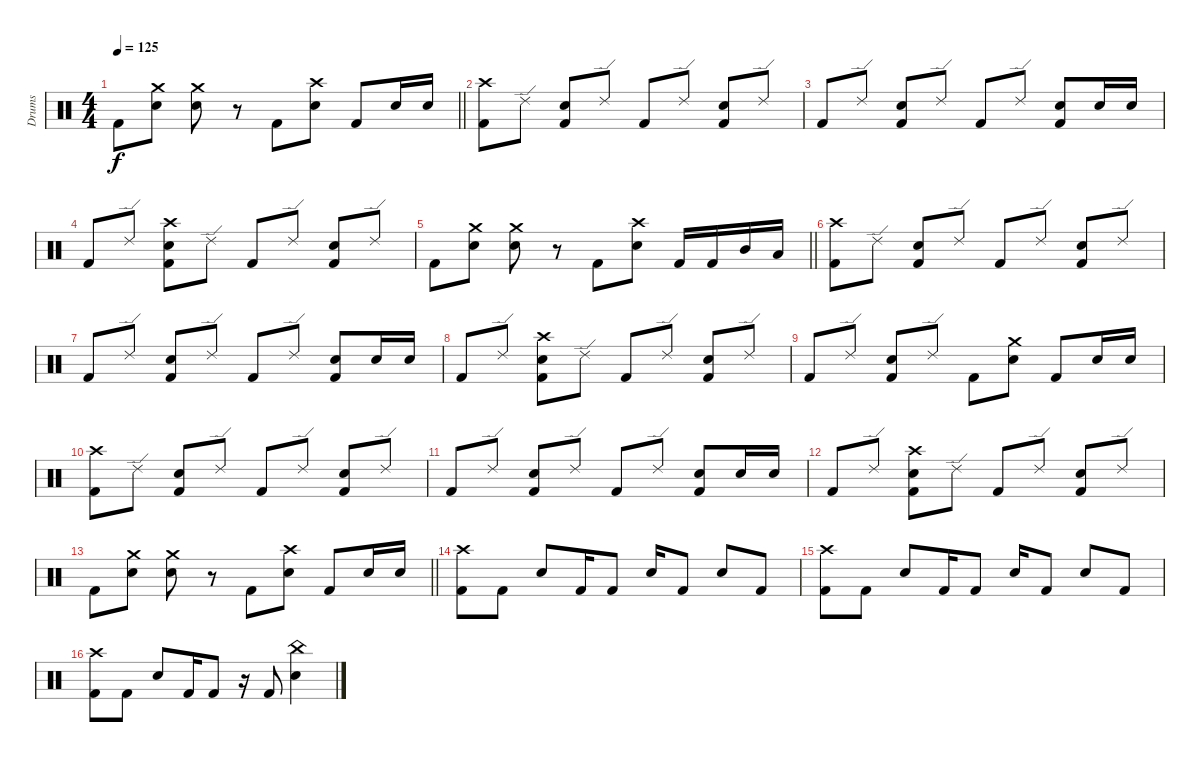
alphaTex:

\track ("Drums" "Drums") {instrument percussion}
\staff
\articulation defaults
\ts (4 4)
\tempo 125
\clef neutral
\barLineRight lightlight
\ks c "Kick (hit) 2".8{dy f}
("Crash medium (hit)" "Electric Snare (hit)").8 ("Crash medium (hit)" "Electric Snare (hit)").8 r.8 "Kick (hit) 2".8 ("Crash high (hit)" "Electric Snare (hit)").8 "Kick (hit) 2".8 "Electric Snare (hit)".16 "Electric Snare (hit)".16 |
("Crash high (hit)" "Kick (hit) 2").8 "Ride (edge) 2".8 ("Electric Snare (hit)" "Kick (hit) 2").8 "Ride (edge) 2".8 "Kick (hit) 2".8 "Ride (edge) 2".8 ("Electric Snare (hit)" "Kick (hit) 2").8 "Ride (edge) 2".8 |
"Kick (hit) 2".8 "Ride (edge) 2".8 ("Electric Snare (hit)" "Kick (hit) 2").8 "Ride (edge) 2".8 "Kick (hit) 2".8 "Ride (edge) 2".8 ("Electric Snare (hit)" "Kick (hit) 2").8 "Electric Snare (hit)".16 "Electric Snare (hit)".16 |
"Kick (hit) 2".8 "Ride (edge) 2".8 ("Crash high (hit)" "Electric Snare (hit)" "Kick (hit) 2").8 "Ride (edge) 2".8 "Kick (hit) 2".8 "Ride (edge) 2".8 ("Electric Snare (hit)" "Kick (hit) 2").8 "Ride (edge) 2".8 |
\barLineRight lightlight "Kick (hit) 2".8
("Crash medium (hit)" "Electric Snare (hit)").8 ("Crash medium (hit)" "Electric Snare (hit)").8 r.8 "Kick (hit) 2".8 ("Crash high (hit)" "Electric Snare (hit)").8 "Kick (hit) 2".16 "Kick (hit) 2".16 "Mid Tom (hit)".16 "Low Tom (hit)".16 |
\section ("" "")
("Crash high (hit)" "Kick (hit) 2").8 "Ride (edge) 2".8 ("Electric Snare (hit)" "Kick (hit) 2").8 "Ride (edge) 2".8 "Kick (hit) 2".8 "Ride (edge) 2".8 ("Electric Snare (hit)" "Kick (hit) 2").8 "Ride (edge) 2".8 |
"Kick (hit) 2".8 "Ride (edge) 2".8 ("Electric Snare (hit)" "Kick (hit) 2").8 "Ride (edge) 2".8 "Kick (hit) 2".8 "Ride (edge) 2".8 ("Electric Snare (hit)" "Kick (hit) 2").8 "Electric Snare (hit)".16 "Electric Snare (hit)".16 |
"Kick (hit) 2".8 "Ride (edge) 2".8 ("Crash high (hit)" "Electric Snare (hit)" "Kick (hit) 2").8 "Ride (edge) 2".8 "Kick (hit) 2".8 "Ride (edge) 2".8 ("Electric Snare (hit)" "Kick (hit) 2").8 "Ride (edge) 2".8 |
"Kick (hit) 2".8 "Ride (edge) 2".8 ("Electric Snare (hit)" "Kick (hit) 2").8 "Ride (edge) 2".8 "Kick (hit) 2".8 ("Crash medium (hit)" "Electric Snare (hit)").8 "Kick (hit) 2".8 "Electric Snare (hit)".16 "Electric Snare (hit)".16 |
("Crash high (hit)" "Kick (hit) 2").8 "Ride (edge) 2".8 ("Electric Snare (hit)" "Kick (hit) 2").8 "Ride (edge) 2".8 "Kick (hit) 2".8 "Ride (edge) 2".8 ("Electric Snare (hit)" "Kick (hit) 2").8 "Ride (edge) 2".8 |
"Kick (hit) 2".8 "Ride (edge) 2".8 ("Electric Snare (hit)" "Kick (hit) 2").8 "Ride (edge) 2".8 "Kick (hit) 2".8 "Ride (edge) 2".8 ("Electric Snare (hit)" "Kick (hit) 2").8 "Electric Snare (hit)".16 "Electric Snare (hit)".16 |
"Kick (hit) 2".8 "Ride (edge) 2".8 ("Crash high (hit)" "Electric Snare (hit)" "Kick (hit) 2").8 "Ride (edge) 2".8 "Kick (hit) 2".8 "Ride (edge) 2".8 ("Electric Snare (hit)" "Kick (hit) 2").8 "Ride (edge) 2".8 |
\barLineRight lightlight "Kick (hit) 2".8
("Crash medium (hit)" "Electric Snare (hit)").8 ("Crash medium (hit)" "Electric Snare (hit)").8 r.8 "Kick (hit) 2".8 ("Crash high (hit)" "Electric Snare (hit)").8 "Kick (hit) 2".8 "Electric Snare (hit)".16 "Electric Snare (hit)".16 |
("Crash high (hit)" "Kick (hit) 2").8 "Kick (hit) 2".8 "Electric Snare (hit)".8 "Kick (hit) 2".16 "Kick (hit) 2".8 "Electric Snare (hit)".16 "Kick (hit) 2".8 "Electric Snare (hit)".8 "Kick (hit) 2".8 |
("Crash high (hit)" "Kick (hit) 2").8 "Kick (hit) 2".8 "Electric Snare (hit)".8 "Kick (hit) 2".16 "Kick (hit) 2".8 "Electric Snare (hit)".16 "Kick (hit) 2".8 "Electric Snare (hit)".8 "Kick (hit) 2".8 |
("Crash high (hit)" "Kick (hit) 2").8 "Kick (hit) 2".8 "Electric Snare (hit)".8 "Kick (hit) 2".16 "Kick (hit) 2".8 r.16 "Kick (hit) 2".8 ("China (hit)" "Electric Snare (hit)").4
